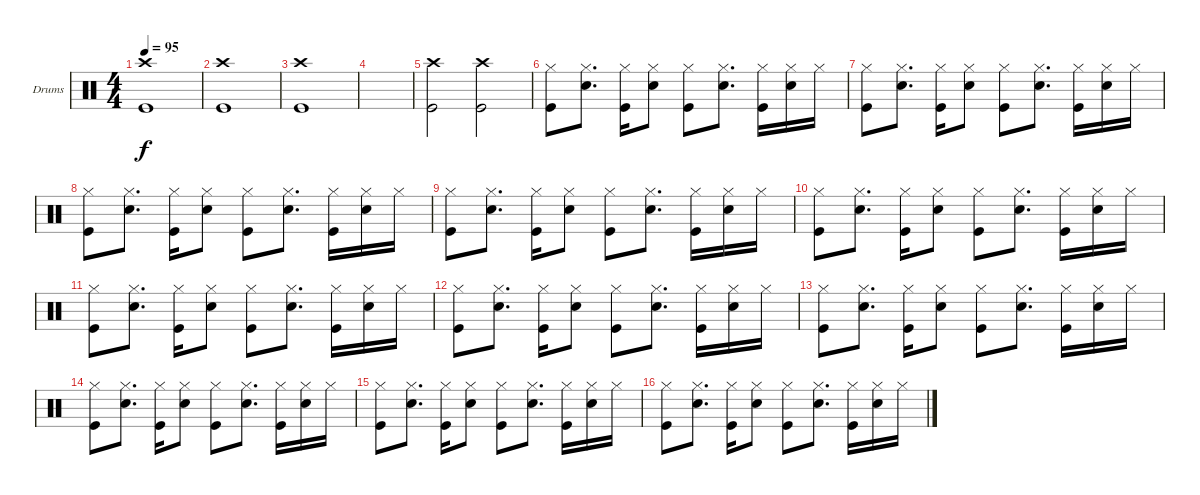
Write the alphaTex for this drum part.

\bracketExtendMode groupsimilarinstruments
\firstSystemTrackNameOrientation horizontal
\otherSystemsTrackNameOrientation horizontal
\track ("Drumkit" "Drums") {instrument percussion}
\staff {score}
\articulation defaults
\ts (4 4)
\tempo 95
\clef neutral
\scale
0.333333
\ks c
("Kick (hit)" "Crash high (hit)").1{dy f} |
\scale
0.333333 ("Kick (hit)" "Crash high (hit)").1 |
\scale
0.333333 ("Kick (hit)" "Crash high (hit)").1 |
\scale
0.333333 |
\scale
0.333333 ("Kick (hit)" "Crash high (hit)").2 ("Kick (hit)" "Crash high (hit)").2 |
\scale
0.333333 ("Kick (hit)" "Hi-Hat (closed)").8 ("Snare (hit) 2" "Hi-Hat (closed)").8{d} ("Kick (hit)" "Hi-Hat (closed)").16 ("Snare (hit) 2" "Hi-Hat (closed)").8 ("Kick (hit)" "Hi-Hat (closed)").8 ("Snare (hit) 2" "Hi-Hat (closed)").8{d} ("Kick (hit)" "Hi-Hat (closed)").16 ("Snare (hit) 2" "Hi-Hat (closed)").16 "Hi-Hat (closed)".16 |
\scale
0.333333 ("Kick (hit)" "Hi-Hat (closed)").8 ("Snare (hit) 2" "Hi-Hat (closed)").8{d} ("Kick (hit)" "Hi-Hat (closed)").16 ("Snare (hit) 2" "Hi-Hat (closed)").8 ("Kick (hit)" "Hi-Hat (closed)").8 ("Snare (hit) 2" "Hi-Hat (closed)").8{d} ("Kick (hit)" "Hi-Hat (closed)").16 ("Snare (hit) 2" "Hi-Hat (closed)").16 "Hi-Hat (closed)".16 |
\scale
0.333333 ("Kick (hit)" "Hi-Hat (closed)").8 ("Snare (hit) 2" "Hi-Hat (closed)").8{d} ("Kick (hit)" "Hi-Hat (closed)").16 ("Snare (hit) 2" "Hi-Hat (closed)").8 ("Kick (hit)" "Hi-Hat (closed)").8 ("Snare (hit) 2" "Hi-Hat (closed)").8{d} ("Kick (hit)" "Hi-Hat (closed)").16 ("Snare (hit) 2" "Hi-Hat (closed)").16 "Hi-Hat (closed)".16 |
\scale
0.333333 ("Kick (hit)" "Hi-Hat (closed)").8 ("Snare (hit) 2" "Hi-Hat (closed)").8{d} ("Kick (hit)" "Hi-Hat (closed)").16 ("Snare (hit) 2" "Hi-Hat (closed)").8 ("Kick (hit)" "Hi-Hat (closed)").8 ("Snare (hit) 2" "Hi-Hat (closed)").8{d} ("Kick (hit)" "Hi-Hat (closed)").16 ("Snare (hit) 2" "Hi-Hat (closed)").16 "Hi-Hat (closed)".16 |
\scale
0.333333 ("Kick (hit)" "Hi-Hat (closed)").8 ("Snare (hit) 2" "Hi-Hat (closed)").8{d} ("Kick (hit)" "Hi-Hat (closed)").16 ("Snare (hit) 2" "Hi-Hat (closed)").8 ("Kick (hit)" "Hi-Hat (closed)").8 ("Snare (hit) 2" "Hi-Hat (closed)").8{d} ("Kick (hit)" "Hi-Hat (closed)").16 ("Snare (hit) 2" "Hi-Hat (closed)").16 "Hi-Hat (closed)".16 |
\scale
0.333333 ("Kick (hit)" "Hi-Hat (closed)").8 ("Snare (hit) 2" "Hi-Hat (closed)").8{d} ("Kick (hit)" "Hi-Hat (closed)").16 ("Snare (hit) 2" "Hi-Hat (closed)").8 ("Kick (hit)" "Hi-Hat (closed)").8 ("Snare (hit) 2" "Hi-Hat (closed)").8{d} ("Kick (hit)" "Hi-Hat (closed)").16 ("Snare (hit) 2" "Hi-Hat (closed)").16 "Hi-Hat (closed)".16 |
\scale
0.333333 ("Kick (hit)" "Hi-Hat (closed)").8 ("Snare (hit) 2" "Hi-Hat (closed)").8{d} ("Kick (hit)" "Hi-Hat (closed)").16 ("Snare (hit) 2" "Hi-Hat (closed)").8 ("Kick (hit)" "Hi-Hat (closed)").8 ("Snare (hit) 2" "Hi-Hat (closed)").8{d} ("Kick (hit)" "Hi-Hat (closed)").16 ("Snare (hit) 2" "Hi-Hat (closed)").16 "Hi-Hat (closed)".16 |
\scale
0.333333 ("Kick (hit)" "Hi-Hat (closed)").8 ("Snare (hit) 2" "Hi-Hat (closed)").8{d} ("Kick (hit)" "Hi-Hat (closed)").16 ("Snare (hit) 2" "Hi-Hat (closed)").8 ("Kick (hit)" "Hi-Hat (closed)").8 ("Snare (hit) 2" "Hi-Hat (closed)").8{d} ("Kick (hit)" "Hi-Hat (closed)").16 ("Snare (hit) 2" "Hi-Hat (closed)").16 "Hi-Hat (closed)".16 |
\scale
0.333333 ("Kick (hit)" "Hi-Hat (closed)").8 ("Snare (hit) 2" "Hi-Hat (closed)").8{d} ("Kick (hit)" "Hi-Hat (closed)").16 ("Snare (hit) 2" "Hi-Hat (closed)").8 ("Kick (hit)" "Hi-Hat (closed)").8 ("Snare (hit) 2" "Hi-Hat (closed)").8{d} ("Kick (hit)" "Hi-Hat (closed)").16 ("Snare (hit) 2" "Hi-Hat (closed)").16 "Hi-Hat (closed)".16 |
\scale
0.333333 ("Kick (hit)" "Hi-Hat (closed)").8 ("Snare (hit) 2" "Hi-Hat (closed)").8{d} ("Kick (hit)" "Hi-Hat (closed)").16 ("Snare (hit) 2" "Hi-Hat (closed)").8 ("Kick (hit)" "Hi-Hat (closed)").8 ("Snare (hit) 2" "Hi-Hat (closed)").8{d} ("Kick (hit)" "Hi-Hat (closed)").16 ("Snare (hit) 2" "Hi-Hat (closed)").16 "Hi-Hat (closed)".16 |
\scale
0.333333 ("Kick (hit)" "Hi-Hat (closed)").8 ("Snare (hit) 2" "Hi-Hat (closed)").8{d} ("Kick (hit)" "Hi-Hat (closed)").16 ("Snare (hit) 2" "Hi-Hat (closed)").8 ("Kick (hit)" "Hi-Hat (closed)").8 ("Snare (hit) 2" "Hi-Hat (closed)").8{d} ("Kick (hit)" "Hi-Hat (closed)").16 ("Snare (hit) 2" "Hi-Hat (closed)").16 "Hi-Hat (closed)".16
